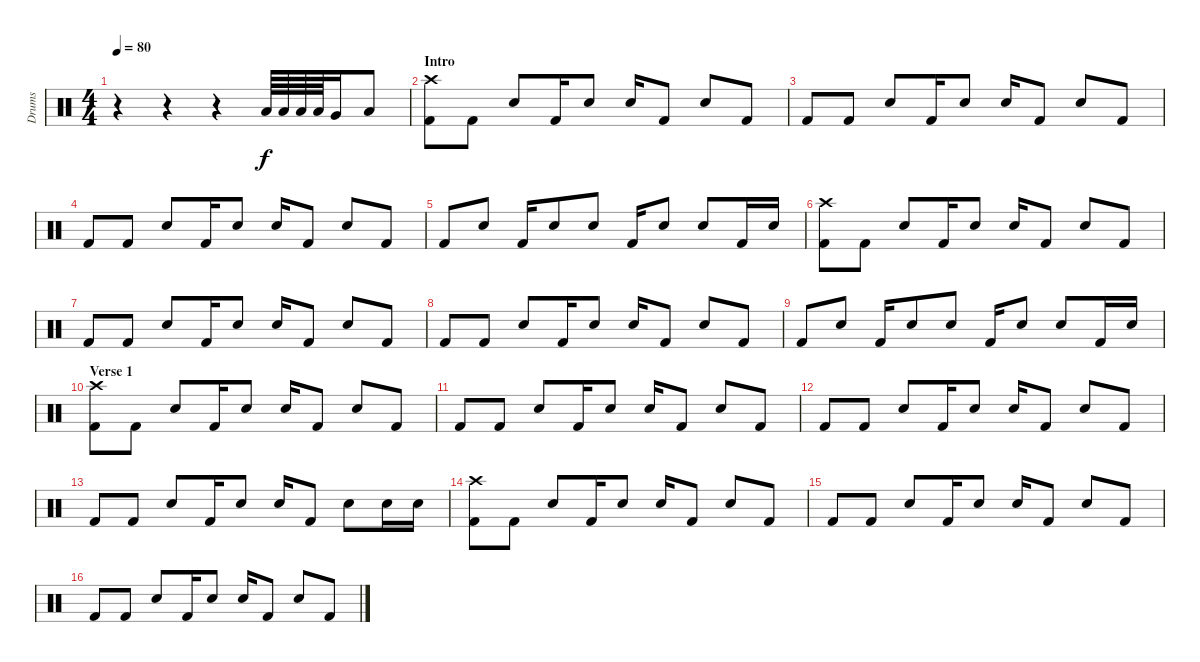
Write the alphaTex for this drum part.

\track ("Drums" "Drums") {instrument percussion}
\staff {score}
\articulation defaults
\ts (4 4)
\tempo 80
\clef neutral
\ks c
r.4{dy f} r.4 r.4 "Low Tom (hit)".64 "Low Tom (hit)".64 "Low Tom (hit)".64 "Low Tom (hit)".64 "Very Low Tom (hit)".16 "Low Floor Tom (hit)".8 |
\section ("" "Intro")
("Crash high (hit)" "Kick (hit) 2").8 "Kick (hit) 2".8 "Electric Snare (hit)".8 "Kick (hit) 2".16 "Electric Snare (hit)".8 "Electric Snare (hit)".16 "Kick (hit) 2".8 "Electric Snare (hit)".8 "Kick (hit) 2".8 |
"Kick (hit) 2".8 "Kick (hit) 2".8 "Electric Snare (hit)".8 "Kick (hit) 2".16 "Electric Snare (hit)".8 "Electric Snare (hit)".16 "Kick (hit) 2".8 "Electric Snare (hit)".8 "Kick (hit) 2".8 |
"Kick (hit) 2".8 "Kick (hit) 2".8 "Electric Snare (hit)".8 "Kick (hit) 2".16 "Electric Snare (hit)".8 "Electric Snare (hit)".16 "Kick (hit) 2".8 "Electric Snare (hit)".8 "Kick (hit) 2".8 |
"Kick (hit) 2".8 "Electric Snare (hit)".8 "Kick (hit) 2".16 "Electric Snare (hit)".8 "Electric Snare (hit)".8 "Kick (hit) 2".16 "Electric Snare (hit)".8 "Electric Snare (hit)".8 "Kick (hit) 2".16 "Electric Snare (hit)".16 |
("Crash high (hit)" "Kick (hit) 2").8 "Kick (hit) 2".8 "Electric Snare (hit)".8 "Kick (hit) 2".16 "Electric Snare (hit)".8 "Electric Snare (hit)".16 "Kick (hit) 2".8 "Electric Snare (hit)".8 "Kick (hit) 2".8 |
"Kick (hit) 2".8 "Kick (hit) 2".8 "Electric Snare (hit)".8 "Kick (hit) 2".16 "Electric Snare (hit)".8 "Electric Snare (hit)".16 "Kick (hit) 2".8 "Electric Snare (hit)".8 "Kick (hit) 2".8 |
"Kick (hit) 2".8 "Kick (hit) 2".8 "Electric Snare (hit)".8 "Kick (hit) 2".16 "Electric Snare (hit)".8 "Electric Snare (hit)".16 "Kick (hit) 2".8 "Electric Snare (hit)".8 "Kick (hit) 2".8 |
"Kick (hit) 2".8 "Electric Snare (hit)".8 "Kick (hit) 2".16 "Electric Snare (hit)".8 "Electric Snare (hit)".8 "Kick (hit) 2".16 "Electric Snare (hit)".8 "Electric Snare (hit)".8 "Kick (hit) 2".16 "Electric Snare (hit)".16 |
\section ("" "Verse 1")
("Crash high (hit)" "Kick (hit) 2").8 "Kick (hit) 2".8 "Electric Snare (hit)".8 "Kick (hit) 2".16 "Electric Snare (hit)".8 "Electric Snare (hit)".16 "Kick (hit) 2".8 "Electric Snare (hit)".8 "Kick (hit) 2".8 |
"Kick (hit) 2".8 "Kick (hit) 2".8 "Electric Snare (hit)".8 "Kick (hit) 2".16 "Electric Snare (hit)".8 "Electric Snare (hit)".16 "Kick (hit) 2".8 "Electric Snare (hit)".8 "Kick (hit) 2".8 |
"Kick (hit) 2".8 "Kick (hit) 2".8 "Electric Snare (hit)".8 "Kick (hit) 2".16 "Electric Snare (hit)".8 "Electric Snare (hit)".16 "Kick (hit) 2".8 "Electric Snare (hit)".8 "Kick (hit) 2".8 |
"Kick (hit) 2".8 "Kick (hit) 2".8 "Electric Snare (hit)".8 "Kick (hit) 2".16 "Electric Snare (hit)".8 "Electric Snare (hit)".16 "Kick (hit) 2".8 "Electric Snare (hit)".8 "Electric Snare (hit)".16 "Electric Snare (hit)".16 |
("Crash high (hit)" "Kick (hit) 2").8 "Kick (hit) 2".8 "Electric Snare (hit)".8 "Kick (hit) 2".16 "Electric Snare (hit)".8 "Electric Snare (hit)".16 "Kick (hit) 2".8 "Electric Snare (hit)".8 "Kick (hit) 2".8 |
"Kick (hit) 2".8 "Kick (hit) 2".8 "Electric Snare (hit)".8 "Kick (hit) 2".16 "Electric Snare (hit)".8 "Electric Snare (hit)".16 "Kick (hit) 2".8 "Electric Snare (hit)".8 "Kick (hit) 2".8 |
"Kick (hit) 2".8 "Kick (hit) 2".8 "Electric Snare (hit)".8 "Kick (hit) 2".16 "Electric Snare (hit)".8 "Electric Snare (hit)".16 "Kick (hit) 2".8 "Electric Snare (hit)".8 "Kick (hit) 2".8
